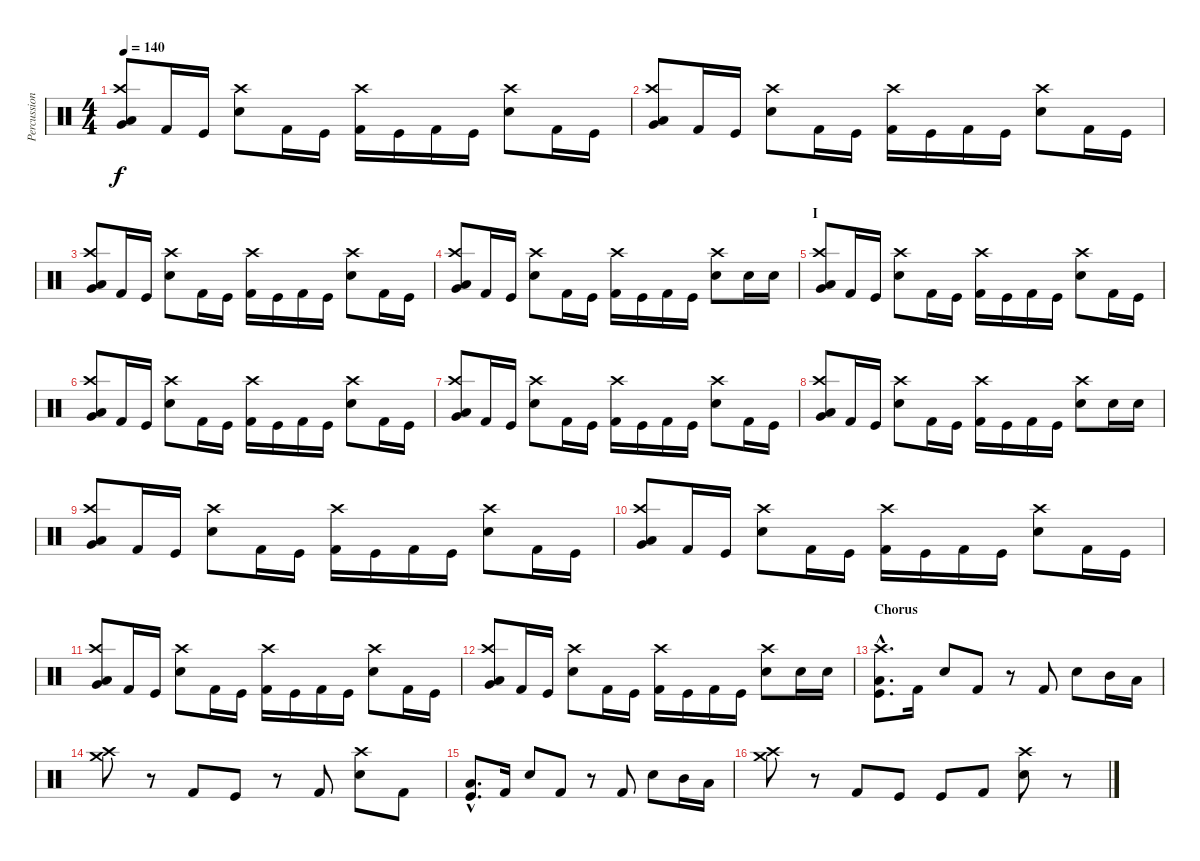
\track ("Percussion" "Percussion") {instrument percussion}
\staff {score}
\articulation defaults
\ts (4 4)
\tempo 140
\clef neutral
\ks c
("Very Low Tom (hit)" "Crash high (hit)" "Low Tom (hit)").8{dy f} "Kick (hit) 2".16 "Kick (hit)".16 ("Electric Snare (hit)" "Crash high (hit)").8 "Kick (hit) 2".16 "Kick (hit)".16 ("Kick (hit) 2" "Crash high (hit)").16 "Kick (hit)".16 "Kick (hit) 2".16 "Kick (hit)".16 ("Electric Snare (hit)" "Crash high (hit)").8 "Kick (hit) 2".16 "Kick (hit)".16 |
("Very Low Tom (hit)" "Crash high (hit)" "Low Tom (hit)").8 "Kick (hit) 2".16 "Kick (hit)".16 ("Electric Snare (hit)" "Crash high (hit)").8 "Kick (hit) 2".16 "Kick (hit)".16 ("Kick (hit) 2" "Crash high (hit)").16 "Kick (hit)".16 "Kick (hit) 2".16 "Kick (hit)".16 ("Electric Snare (hit)" "Crash high (hit)").8 "Kick (hit) 2".16 "Kick (hit)".16 |
("Very Low Tom (hit)" "Crash high (hit)" "Low Tom (hit)").8 "Kick (hit) 2".16 "Kick (hit)".16 ("Electric Snare (hit)" "Crash high (hit)").8 "Kick (hit) 2".16 "Kick (hit)".16 ("Kick (hit) 2" "Crash high (hit)").16 "Kick (hit)".16 "Kick (hit) 2".16 "Kick (hit)".16 ("Electric Snare (hit)" "Crash high (hit)").8 "Kick (hit) 2".16 "Kick (hit)".16 |
("Very Low Tom (hit)" "Crash high (hit)" "Low Tom (hit)").8 "Kick (hit) 2".16 "Kick (hit)".16 ("Electric Snare (hit)" "Crash high (hit)").8 "Kick (hit) 2".16 "Kick (hit)".16 ("Kick (hit) 2" "Crash high (hit)").16 "Kick (hit)".16 "Kick (hit) 2".16 "Kick (hit)".16 ("Electric Snare (hit)" "Crash high (hit)").8 "Snare (hit) 2".16 "Snare (hit) 2".16 |
\section ("" "I")
("Very Low Tom (hit)" "Crash high (hit)" "Low Tom (hit)").8 "Kick (hit) 2".16 "Kick (hit)".16 ("Electric Snare (hit)" "Crash high (hit)").8 "Kick (hit) 2".16 "Kick (hit)".16 ("Kick (hit) 2" "Crash high (hit)").16 "Kick (hit)".16 "Kick (hit) 2".16 "Kick (hit)".16 ("Electric Snare (hit)" "Crash high (hit)").8 "Kick (hit) 2".16 "Kick (hit)".16 |
("Very Low Tom (hit)" "Crash high (hit)" "Low Tom (hit)").8 "Kick (hit) 2".16 "Kick (hit)".16 ("Electric Snare (hit)" "Crash high (hit)").8 "Kick (hit) 2".16 "Kick (hit)".16 ("Kick (hit) 2" "Crash high (hit)").16 "Kick (hit)".16 "Kick (hit) 2".16 "Kick (hit)".16 ("Electric Snare (hit)" "Crash high (hit)").8 "Kick (hit) 2".16 "Kick (hit)".16 |
("Very Low Tom (hit)" "Crash high (hit)" "Low Tom (hit)").8 "Kick (hit) 2".16 "Kick (hit)".16 ("Electric Snare (hit)" "Crash high (hit)").8 "Kick (hit) 2".16 "Kick (hit)".16 ("Kick (hit) 2" "Crash high (hit)").16 "Kick (hit)".16 "Kick (hit) 2".16 "Kick (hit)".16 ("Electric Snare (hit)" "Crash high (hit)").8 "Kick (hit) 2".16 "Kick (hit)".16 |
("Very Low Tom (hit)" "Crash high (hit)" "Low Tom (hit)").8 "Kick (hit) 2".16 "Kick (hit)".16 ("Electric Snare (hit)" "Crash high (hit)").8 "Kick (hit) 2".16 "Kick (hit)".16 ("Kick (hit) 2" "Crash high (hit)").16 "Kick (hit)".16 "Kick (hit) 2".16 "Kick (hit)".16 ("Electric Snare (hit)" "Crash high (hit)").8 "Snare (hit) 2".16 "Snare (hit) 2".16 |
("Very Low Tom (hit)" "Crash high (hit)" "Low Tom (hit)").8 "Kick (hit) 2".16 "Kick (hit)".16 ("Electric Snare (hit)" "Crash high (hit)").8 "Kick (hit) 2".16 "Kick (hit)".16 ("Kick (hit) 2" "Crash high (hit)").16 "Kick (hit)".16 "Kick (hit) 2".16 "Kick (hit)".16 ("Electric Snare (hit)" "Crash high (hit)").8 "Kick (hit) 2".16 "Kick (hit)".16 |
("Very Low Tom (hit)" "Crash high (hit)" "Low Tom (hit)").8 "Kick (hit) 2".16 "Kick (hit)".16 ("Electric Snare (hit)" "Crash high (hit)").8 "Kick (hit) 2".16 "Kick (hit)".16 ("Kick (hit) 2" "Crash high (hit)").16 "Kick (hit)".16 "Kick (hit) 2".16 "Kick (hit)".16 ("Electric Snare (hit)" "Crash high (hit)").8 "Kick (hit) 2".16 "Kick (hit)".16 |
("Very Low Tom (hit)" "Crash high (hit)" "Low Tom (hit)").8 "Kick (hit) 2".16 "Kick (hit)".16 ("Electric Snare (hit)" "Crash high (hit)").8 "Kick (hit) 2".16 "Kick (hit)".16 ("Kick (hit) 2" "Crash high (hit)").16 "Kick (hit)".16 "Kick (hit) 2".16 "Kick (hit)".16 ("Electric Snare (hit)" "Crash high (hit)").8 "Kick (hit) 2".16 "Kick (hit)".16 |
("Very Low Tom (hit)" "Crash high (hit)" "Low Tom (hit)").8 "Kick (hit) 2".16 "Kick (hit)".16 ("Electric Snare (hit)" "Crash high (hit)").8 "Kick (hit) 2".16 "Kick (hit)".16 ("Kick (hit) 2" "Crash high (hit)").16 "Kick (hit)".16 "Kick (hit) 2".16 "Kick (hit)".16 ("Electric Snare (hit)" "Crash high (hit)").8 "Snare (hit) 2".16 "Snare (hit) 2".16 |
\section ("" "Chorus")
("Low Tom (hit)"{hac} "Kick (hit)"{hac} "Crash high (hit)"{hac}).8{d} "Kick (hit) 2".16 "Electric Snare (hit)".8 "Kick (hit) 2".8 r.8 "Kick (hit) 2".8 "Electric Snare (hit)".8 "Mid Tom (hit)".16 "Low Tom (hit)".16 |
("Crash medium (hit)" "Crash high (hit)").8 r.8 "Kick (hit) 2".8 "Kick (hit)".8 r.8 "Kick (hit) 2".8 ("Electric Snare (hit)" "Crash high (hit)").8 "Kick (hit) 2".8 |
("Low Tom (hit)"{hac} "Kick (hit)"{hac}).8{d} "Kick (hit) 2".16 "Electric Snare (hit)".8 "Kick (hit) 2".8 r.8 "Kick (hit) 2".8 "Electric Snare (hit)".8 "Mid Tom (hit)".16 "Low Tom (hit)".16 |
("Crash medium (hit)" "Crash high (hit)").8 r.8 "Kick (hit) 2".8 "Kick (hit)".8 "Kick (hit)".8 "Kick (hit) 2".8 ("Electric Snare (hit)" "Crash high (hit)").8 r.8
